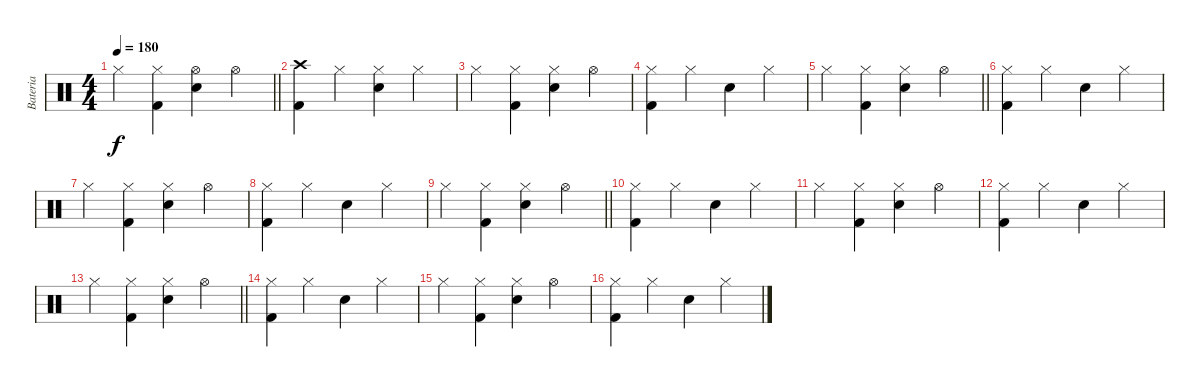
\track ("Bateria" "Bateria") {instrument percussion}
\staff {score}
\articulation defaults
\ts (4 4)
\tempo 180
\clef neutral
\barLineRight lightlight
\ks c "Hi-Hat (closed)".4{dy f}
("Hi-Hat (closed)" "Kick (hit) 2").4 ("Hi-Hat (open)" "Electric Snare (hit)").4 "Hi-Hat (open)".4 |
("Crash high (hit)" "Kick (hit) 2").4 "Hi-Hat (closed)".4 ("Electric Snare (hit)" "Hi-Hat (closed)").4 "Hi-Hat (closed)".4 |
"Hi-Hat (closed)".4 ("Hi-Hat (closed)" "Kick (hit) 2").4 ("Hi-Hat (closed)" "Electric Snare (hit)").4 "Hi-Hat (open)".4 |
("Hi-Hat (closed)" "Kick (hit) 2").4 "Hi-Hat (closed)".4 "Electric Snare (hit)".4 "Hi-Hat (closed)".4 |
\barLineRight lightlight "Hi-Hat (closed)".4
("Hi-Hat (closed)" "Kick (hit) 2").4 ("Hi-Hat (closed)" "Electric Snare (hit)").4 "Hi-Hat (open)".4 |
\section ("" "")
("Hi-Hat (closed)" "Kick (hit) 2").4 "Hi-Hat (closed)".4 "Electric Snare (hit)".4 "Hi-Hat (closed)".4 |
"Hi-Hat (closed)".4 ("Hi-Hat (closed)" "Kick (hit) 2").4 ("Hi-Hat (closed)" "Electric Snare (hit)").4 "Hi-Hat (open)".4 |
("Hi-Hat (closed)" "Kick (hit) 2").4 "Hi-Hat (closed)".4 "Electric Snare (hit)".4 "Hi-Hat (closed)".4 |
\barLineRight lightlight "Hi-Hat (closed)".4
("Hi-Hat (closed)" "Kick (hit) 2").4 ("Hi-Hat (closed)" "Electric Snare (hit)").4 "Hi-Hat (open)".4 |
("Hi-Hat (closed)" "Kick (hit) 2").4 "Hi-Hat (closed)".4 "Electric Snare (hit)".4 "Hi-Hat (closed)".4 |
"Hi-Hat (closed)".4 ("Hi-Hat (closed)" "Kick (hit) 2").4 ("Hi-Hat (closed)" "Electric Snare (hit)").4 "Hi-Hat (open)".4 |
("Hi-Hat (closed)" "Kick (hit) 2").4 "Hi-Hat (closed)".4 "Electric Snare (hit)".4 "Hi-Hat (closed)".4 |
\barLineRight lightlight "Hi-Hat (closed)".4
("Hi-Hat (closed)" "Kick (hit) 2").4 ("Hi-Hat (closed)" "Electric Snare (hit)").4 "Hi-Hat (open)".4 |
\section ("" "")
("Hi-Hat (closed)" "Kick (hit) 2").4 "Hi-Hat (closed)".4 "Electric Snare (hit)".4 "Hi-Hat (closed)".4 |
"Hi-Hat (closed)".4 ("Hi-Hat (closed)" "Kick (hit) 2").4 ("Hi-Hat (closed)" "Electric Snare (hit)").4 "Hi-Hat (open)".4 |
("Hi-Hat (closed)" "Kick (hit) 2").4 "Hi-Hat (closed)".4 "Electric Snare (hit)".4 "Hi-Hat (closed)".4
